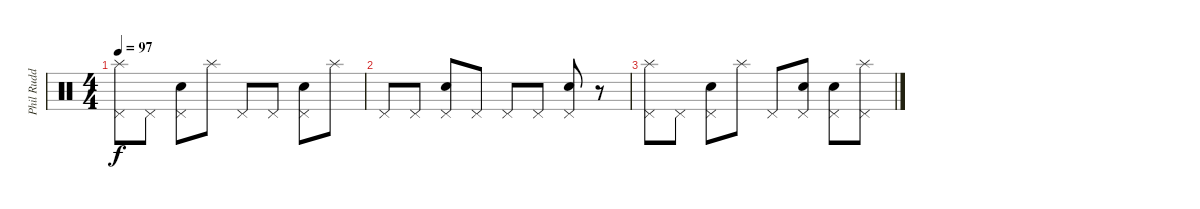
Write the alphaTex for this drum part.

\track ("Phil Rudd - Drums" "Phil Rudd ") {instrument percussion}
\staff {score}
\articulation defaults
\ts (4 4)
\tempo 97
\clef neutral
\ks c
("Pedal Hi-Hat (hit)" "Splash (hit)").8{dy f} "Pedal Hi-Hat (hit)".8 ("Pedal Hi-Hat (hit)" "Snare (hit) 2").8 "Splash (hit)".8 "Pedal Hi-Hat (hit)".8 "Pedal Hi-Hat (hit)".8 ("Pedal Hi-Hat (hit)" "Snare (hit) 2").8 "Splash (hit)".8 |
"Pedal Hi-Hat (hit)".8 "Pedal Hi-Hat (hit)".8 ("Pedal Hi-Hat (hit)" "Snare (hit) 2").8 "Pedal Hi-Hat (hit)".8 "Pedal Hi-Hat (hit)".8 "Pedal Hi-Hat (hit)".8 ("Pedal Hi-Hat (hit)" "Snare (hit) 2").8 r.8 |
("Pedal Hi-Hat (hit)" "Splash (hit)").8 "Pedal Hi-Hat (hit)".8 ("Pedal Hi-Hat (hit)" "Snare (hit) 2").8 "Splash (hit)".8 "Pedal Hi-Hat (hit)".8 ("Pedal Hi-Hat (hit)" "Snare (hit) 2").8 ("Pedal Hi-Hat (hit)" "Snare (hit) 2").8 ("Pedal Hi-Hat (hit)" "Splash (hit)").8
